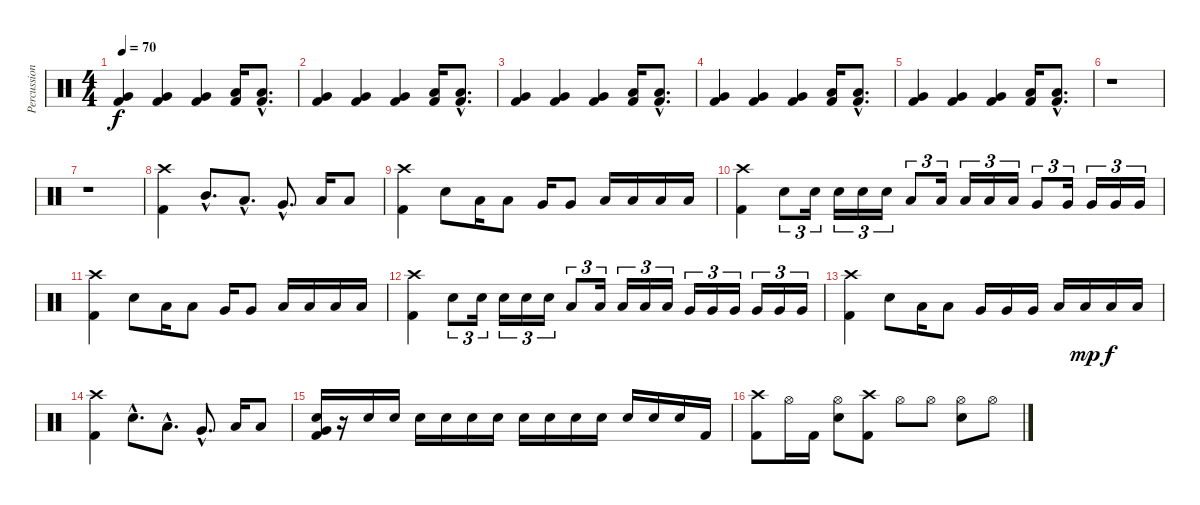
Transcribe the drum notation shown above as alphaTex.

\track ("Percussion" "Percussion") {instrument percussion}
\staff {score}
\articulation defaults
\ts (4 4)
\tempo 70
\clef neutral
\ks c
("Very Low Tom (hit)" "Kick (hit) 2").4{dy f} ("Very Low Tom (hit)" "Kick (hit) 2").4 ("Very Low Tom (hit)" "Kick (hit) 2").4 ("Low Floor Tom (hit)" "Kick (hit) 2").16 ("Low Floor Tom (hit)"{hac} "Kick (hit) 2"{hac}).8{d} |
("Very Low Tom (hit)" "Kick (hit) 2").4 ("Very Low Tom (hit)" "Kick (hit) 2").4 ("Very Low Tom (hit)" "Kick (hit) 2").4 ("Low Floor Tom (hit)" "Kick (hit) 2").16 ("Low Floor Tom (hit)"{hac} "Kick (hit) 2"{hac}).8{d} |
("Very Low Tom (hit)" "Kick (hit) 2").4 ("Very Low Tom (hit)" "Kick (hit) 2").4 ("Very Low Tom (hit)" "Kick (hit) 2").4 ("Low Floor Tom (hit)" "Kick (hit) 2").16 ("Low Floor Tom (hit)"{hac} "Kick (hit) 2"{hac}).8{d} |
("Very Low Tom (hit)" "Kick (hit) 2").4 ("Very Low Tom (hit)" "Kick (hit) 2").4 ("Very Low Tom (hit)" "Kick (hit) 2").4 ("Low Floor Tom (hit)" "Kick (hit) 2").16 ("Low Floor Tom (hit)"{hac} "Kick (hit) 2"{hac}).8{d} |
("Very Low Tom (hit)" "Kick (hit) 2").4 ("Very Low Tom (hit)" "Kick (hit) 2").4 ("Very Low Tom (hit)" "Kick (hit) 2").4 ("Low Floor Tom (hit)" "Kick (hit) 2").16 ("Low Floor Tom (hit)"{hac} "Kick (hit) 2"{hac}).8{d} |
r.1 |
r.1 |
("Crash high (hit)" "Kick (hit) 2").4 "Mid Tom (hit)"{hac}.8{d} "Low Tom (hit)"{hac}.8{d} "Very Low Tom (hit)"{hac}.8{d} "Low Floor Tom (hit)".16 "Low Floor Tom (hit)".8 |
("Crash high (hit)" "Kick (hit) 2").4 "Electric Snare (hit)".8 "Low Tom (hit)".16 "Low Tom (hit)".8 "Very Low Tom (hit)".16 "Very Low Tom (hit)".8 "Low Floor Tom (hit)".16 "Low Floor Tom (hit)".16 "Low Floor Tom (hit)".16 "Low Floor Tom (hit)".16 |
("Crash high (hit)" "Kick (hit) 2").4 "Electric Snare (hit)".8{tu (3 2)} "Electric Snare (hit)".16{tu (3 2)} "Electric Snare (hit)".16{tu (3 2)} "Electric Snare (hit)".16{tu (3 2)} "Electric Snare (hit)".16{tu (3 2)} "Low Tom (hit)".8{tu (3 2)} "Low Tom (hit)".16{tu (3 2)} "Low Tom (hit)".16{tu (3 2)} "Low Tom (hit)".16{tu (3 2)} "Low Tom (hit)".16{tu (3 2)} "Very Low Tom (hit)".8{tu (3 2)} "Very Low Tom (hit)".16{tu (3 2)} "Very Low Tom (hit)".16{tu (3 2)} "Very Low Tom (hit)".16{tu (3 2)} "Very Low Tom (hit)".16{tu (3 2)} |
("Crash high (hit)" "Kick (hit) 2").4 "Electric Snare (hit)".8 "Low Tom (hit)".16 "Low Tom (hit)".8 "Very Low Tom (hit)".16 "Very Low Tom (hit)".8 "Low Floor Tom (hit)".16 "Low Floor Tom (hit)".16 "Low Floor Tom (hit)".16 "Low Floor Tom (hit)".16 |
("Crash high (hit)" "Kick (hit) 2").4 "Electric Snare (hit)".8{tu (3 2)} "Electric Snare (hit)".16{tu (3 2)} "Electric Snare (hit)".16{tu (3 2)} "Electric Snare (hit)".16{tu (3 2)} "Electric Snare (hit)".16{tu (3 2)} "Low Tom (hit)".8{tu (3 2)} "Low Tom (hit)".16{tu (3 2)} "Low Tom (hit)".16{tu (3 2)} "Low Tom (hit)".16{tu (3 2)} "Low Tom (hit)".16{tu (3 2)} "Very Low Tom (hit)".16{tu (3 2)} "Very Low Tom (hit)".16{tu (3 2)} "Very Low Tom (hit)".16{tu (3 2)} "Very Low Tom (hit)".16{tu (3 2)} "Very Low Tom (hit)".16{tu (3 2)} "Very Low Tom (hit)".16{tu (3 2)} |
("Crash high (hit)" "Kick (hit) 2").4 "Electric Snare (hit)".8 "Low Tom (hit)".16 "Low Tom (hit)".8 "Very Low Tom (hit)".16 "Very Low Tom (hit)".16 "Very Low Tom (hit)".16 "Low Floor Tom (hit)".16 "Low Floor Tom (hit)".16{dy mp} "Low Floor Tom (hit)".16{dy f} "Low Floor Tom (hit)".16 |
("Crash high (hit)" "Kick (hit) 2").4 "Electric Snare (hit)"{hac}.8{d} "Low Tom (hit)"{hac}.8{d} "Very Low Tom (hit)"{hac}.8{d} "Low Floor Tom (hit)".16 "Low Floor Tom (hit)".8 |
("Electric Snare (hit)" "Very Low Tom (hit)" "Kick (hit) 2").16 r.16{volume 5} "Electric Snare (hit)".16{volume 13} "Electric Snare (hit)".16 "Electric Snare (hit)".16 "Electric Snare (hit)".16 "Electric Snare (hit)".16 "Electric Snare (hit)".16 "Electric Snare (hit)".16 "Electric Snare (hit)".16 "Electric Snare (hit)".16 "Electric Snare (hit)".16 "Electric Snare (hit)".16 "Electric Snare (hit)".16 "Electric Snare (hit)".16 "Kick (hit) 2".16 |
("Crash high (hit)" "Kick (hit) 2").8 "Hi-Hat (open)".16 "Kick (hit) 2".16 ("Hi-Hat (open)" "Electric Snare (hit)").8 ("Crash high (hit)" "Kick (hit) 2").8 "Hi-Hat (open)".8 "Hi-Hat (open)".8 ("Hi-Hat (open)" "Electric Snare (hit)").8 "Hi-Hat (open)".8
